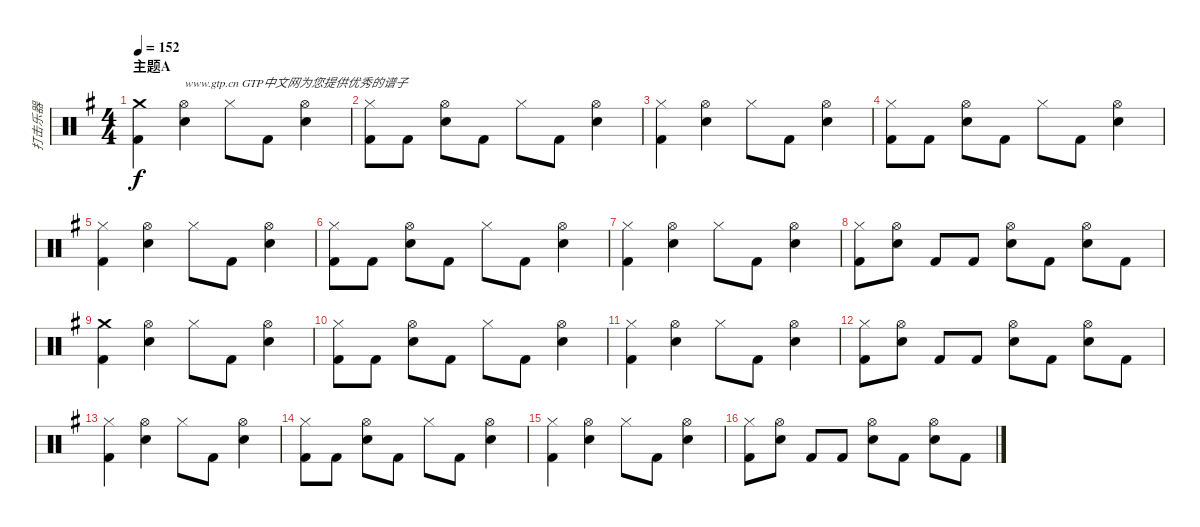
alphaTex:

\track ("打击乐器" "打击乐器") {instrument percussion}
\staff {score}
\articulation defaults
\ts (4 4)
\section ("" "主题A")
\tempo 152
\clef neutral
\ks g
("Crash medium (hit)" "Kick (hit) 2").4{dy f} ("Hi-Hat (open)" "Metronome (bell)").4{txt "www.gtp.cn GTP中文网为您提供优秀的谱子"} "Hi-Hat (closed)".8 "Kick (hit) 2".8 ("Hi-Hat (open)" "Metronome (bell)").4 |
("Hi-Hat (closed)" "Kick (hit) 2").8 "Kick (hit) 2".8 ("Hi-Hat (open)" "Metronome (bell)").8 "Kick (hit) 2".8 "Hi-Hat (closed)".8 "Kick (hit) 2".8 ("Hi-Hat (open)" "Metronome (bell)").4 |
("Hi-Hat (closed)" "Kick (hit) 2").4 ("Hi-Hat (open)" "Metronome (bell)").4 "Hi-Hat (closed)".8 "Kick (hit) 2".8 ("Hi-Hat (open)" "Metronome (bell)").4 |
("Hi-Hat (closed)" "Kick (hit) 2").8 "Kick (hit) 2".8 ("Hi-Hat (open)" "Metronome (bell)").8 "Kick (hit) 2".8 "Hi-Hat (closed)".8 "Kick (hit) 2".8 ("Hi-Hat (open)" "Metronome (bell)").4 |
("Hi-Hat (closed)" "Kick (hit) 2").4 ("Hi-Hat (open)" "Metronome (bell)").4 "Hi-Hat (closed)".8 "Kick (hit) 2".8 ("Hi-Hat (open)" "Metronome (bell)").4 |
("Hi-Hat (closed)" "Kick (hit) 2").8 "Kick (hit) 2".8 ("Hi-Hat (open)" "Metronome (bell)").8 "Kick (hit) 2".8 "Hi-Hat (closed)".8 "Kick (hit) 2".8 ("Hi-Hat (open)" "Metronome (bell)").4 |
("Hi-Hat (closed)" "Kick (hit) 2").4 ("Hi-Hat (open)" "Metronome (bell)").4 "Hi-Hat (closed)".8 "Kick (hit) 2".8 ("Hi-Hat (open)" "Metronome (bell)").4 |
("Hi-Hat (closed)" "Kick (hit) 2").8 ("Hi-Hat (open)" "Metronome (bell)").8 "Kick (hit) 2".8 "Kick (hit) 2".8 ("Hi-Hat (open)" "Metronome (bell)").8 "Kick (hit) 2".8 ("Hi-Hat (open)" "Metronome (bell)").8 "Kick (hit) 2".8 |
("Crash medium (hit)" "Kick (hit) 2").4 ("Hi-Hat (open)" "Metronome (bell)").4 "Hi-Hat (closed)".8 "Kick (hit) 2".8 ("Hi-Hat (open)" "Metronome (bell)").4 |
("Hi-Hat (closed)" "Kick (hit) 2").8 "Kick (hit) 2".8 ("Hi-Hat (open)" "Metronome (bell)").8 "Kick (hit) 2".8 "Hi-Hat (closed)".8 "Kick (hit) 2".8 ("Hi-Hat (open)" "Metronome (bell)").4 |
("Hi-Hat (closed)" "Kick (hit) 2").4 ("Hi-Hat (open)" "Metronome (bell)").4 "Hi-Hat (closed)".8 "Kick (hit) 2".8 ("Hi-Hat (open)" "Metronome (bell)").4 |
("Hi-Hat (closed)" "Kick (hit) 2").8 ("Hi-Hat (open)" "Metronome (bell)").8 "Kick (hit) 2".8 "Kick (hit) 2".8 ("Hi-Hat (open)" "Metronome (bell)").8 "Kick (hit) 2".8 ("Hi-Hat (open)" "Metronome (bell)").8 "Kick (hit) 2".8 |
("Hi-Hat (closed)" "Kick (hit) 2").4 ("Hi-Hat (open)" "Metronome (bell)").4 "Hi-Hat (closed)".8 "Kick (hit) 2".8 ("Hi-Hat (open)" "Metronome (bell)").4 |
("Hi-Hat (closed)" "Kick (hit) 2").8 "Kick (hit) 2".8 ("Hi-Hat (open)" "Metronome (bell)").8 "Kick (hit) 2".8 "Hi-Hat (closed)".8 "Kick (hit) 2".8 ("Hi-Hat (open)" "Metronome (bell)").4 |
("Hi-Hat (closed)" "Kick (hit) 2").4 ("Hi-Hat (open)" "Metronome (bell)").4 "Hi-Hat (closed)".8 "Kick (hit) 2".8 ("Hi-Hat (open)" "Metronome (bell)").4 |
("Hi-Hat (closed)" "Kick (hit) 2").8 ("Hi-Hat (open)" "Metronome (bell)").8 "Kick (hit) 2".8 "Kick (hit) 2".8 ("Hi-Hat (open)" "Metronome (bell)").8 "Kick (hit) 2".8 ("Hi-Hat (open)" "Metronome (bell)").8 "Kick (hit) 2".8
